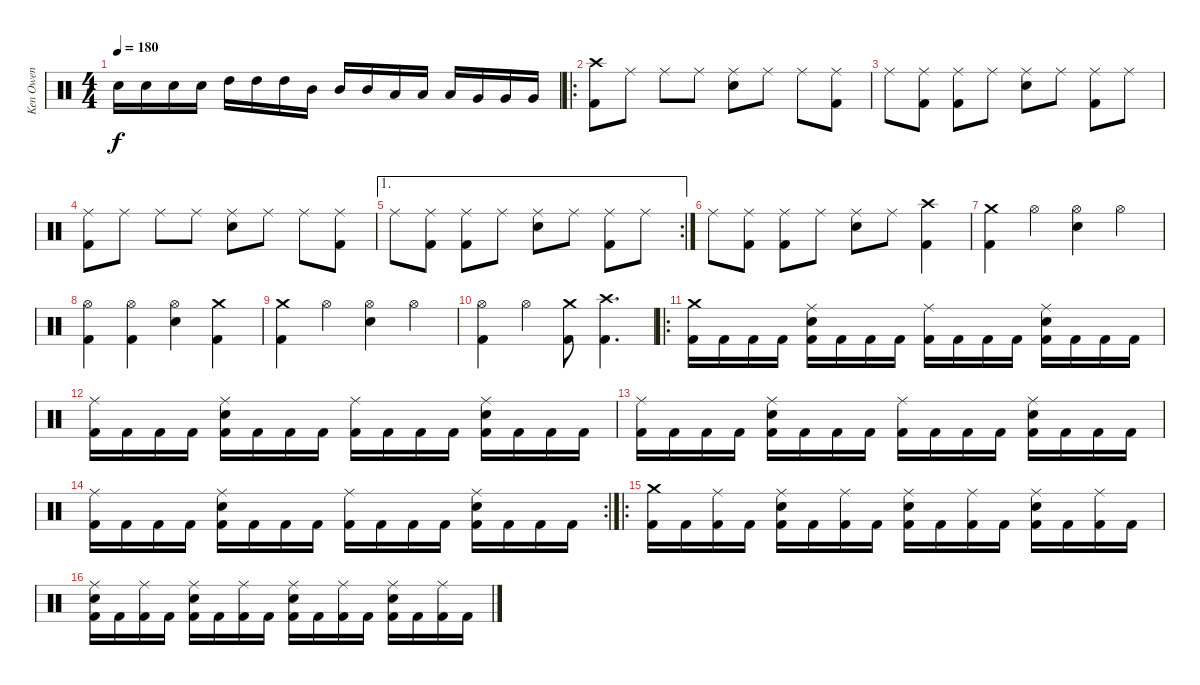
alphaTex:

\track ("Ken Owen" "Ken Owen") {instrument percussion}
\staff {score}
\articulation defaults
\ts (4 4)
\tempo 180
\clef neutral
\ks c "Snare (hit) 2".16{dy f} "Snare (hit) 2".16 "Snare (hit) 2".16 "Snare (hit) 2".16 "High Tom (hit)".16 "High Tom (hit)".16 "High Tom (hit)".16 "Mid Tom (hit)".16 "Mid Tom (hit)".16 "Mid Tom (hit)".16 "Low Tom (hit)".16 "Low Tom (hit)".16 "Low Tom (hit)".16 "Very Low Tom (hit)".16 "Very Low Tom (hit)".16 "Very Low Tom (hit)".16
|
\ro
("Crash high (hit)" "Kick (hit) 2").8 "Ride (middle)".8 "Ride (middle)".8 "Ride (middle)".8 ("Ride (middle)" "Snare (hit) 2").8 "Ride (middle)".8 "Ride (middle)".8 ("Ride (middle)" "Kick (hit) 2").8 |
"Ride (middle)".8 ("Ride (middle)" "Kick (hit) 2").8 ("Ride (middle)" "Kick (hit) 2").8 "Ride (middle)".8 ("Ride (middle)" "Snare (hit) 2").8 "Ride (middle)".8 ("Ride (middle)" "Kick (hit) 2").8 "Ride (middle)".8 |
("Ride (middle)" "Kick (hit) 2").8 "Ride (middle)".8 "Ride (middle)".8 "Ride (middle)".8 ("Ride (middle)" "Snare (hit) 2").8 "Ride (middle)".8 "Ride (middle)".8 ("Ride (middle)" "Kick (hit) 2").8 |
\ae 1
\rc 2 "Ride (middle)".8
("Ride (middle)" "Kick (hit) 2").8 ("Ride (middle)" "Kick (hit) 2").8 "Ride (middle)".8 ("Ride (middle)" "Snare (hit) 2").8 "Ride (middle)".8 ("Ride (middle)" "Kick (hit) 2").8 "Ride (middle)".8 |
"Ride (middle)".8 ("Ride (middle)" "Kick (hit) 2").8 ("Ride (middle)" "Kick (hit) 2").8 "Ride (middle)".8 ("Ride (middle)" "Snare (hit) 2").8 "Ride (middle)".8 ("Crash high (hit)" "Kick (hit) 2").4 |
("Crash medium (hit)" "Kick (hit) 2").4 "Hi-Hat (open)".4 ("Hi-Hat (open)" "Snare (hit) 2").4 "Hi-Hat (open)".4 |
("Hi-Hat (open)" "Kick (hit) 2").4 ("Hi-Hat (open)" "Kick (hit) 2").4 ("Hi-Hat (open)" "Snare (hit) 2").4 ("Crash medium (hit)" "Kick (hit) 2").4 |
("Crash medium (hit)" "Kick (hit) 2").4 "Hi-Hat (open)".4 ("Hi-Hat (open)" "Snare (hit) 2").4 "Hi-Hat (open)".4 |
("Hi-Hat (open)" "Kick (hit) 2").4 "Hi-Hat (open)".4 ("Crash medium (hit)" "Kick (hit) 2").8 ("Crash high (hit)" "Kick (hit) 2").4{d} |
\ro
("Crash medium (hit)" "Kick (hit) 2").16 "Kick (hit) 2".16 "Kick (hit) 2".16 "Kick (hit) 2".16 ("Ride (middle)" "Snare (hit) 2" "Kick (hit) 2").16 "Kick (hit) 2".16 "Kick (hit) 2".16 "Kick (hit) 2".16 ("Ride (middle)" "Kick (hit) 2").16 "Kick (hit) 2".16 "Kick (hit) 2".16 "Kick (hit) 2".16 ("Ride (middle)" "Snare (hit) 2" "Kick (hit) 2").16 "Kick (hit) 2".16 "Kick (hit) 2".16 "Kick (hit) 2".16 |
("Ride (middle)" "Kick (hit) 2").16 "Kick (hit) 2".16 "Kick (hit) 2".16 "Kick (hit) 2".16 ("Ride (middle)" "Snare (hit) 2" "Kick (hit) 2").16 "Kick (hit) 2".16 "Kick (hit) 2".16 "Kick (hit) 2".16 ("Ride (middle)" "Kick (hit) 2").16 "Kick (hit) 2".16 "Kick (hit) 2".16 "Kick (hit) 2".16 ("Ride (middle)" "Snare (hit) 2" "Kick (hit) 2").16 "Kick (hit) 2".16 "Kick (hit) 2".16 "Kick (hit) 2".16 |
("Ride (middle)" "Kick (hit) 2").16 "Kick (hit) 2".16 "Kick (hit) 2".16 "Kick (hit) 2".16 ("Ride (middle)" "Snare (hit) 2" "Kick (hit) 2").16 "Kick (hit) 2".16 "Kick (hit) 2".16 "Kick (hit) 2".16 ("Ride (middle)" "Kick (hit) 2").16 "Kick (hit) 2".16 "Kick (hit) 2".16 "Kick (hit) 2".16 ("Ride (middle)" "Snare (hit) 2" "Kick (hit) 2").16 "Kick (hit) 2".16 "Kick (hit) 2".16 "Kick (hit) 2".16 |
\rc 2
("Ride (middle)" "Kick (hit) 2").16 "Kick (hit) 2".16 "Kick (hit) 2".16 "Kick (hit) 2".16 ("Ride (middle)" "Snare (hit) 2" "Kick (hit) 2").16 "Kick (hit) 2".16 "Kick (hit) 2".16 "Kick (hit) 2".16 ("Ride (middle)" "Kick (hit) 2").16 "Kick (hit) 2".16 "Kick (hit) 2".16 "Kick (hit) 2".16 ("Ride (middle)" "Snare (hit) 2" "Kick (hit) 2").16 "Kick (hit) 2".16 "Kick (hit) 2".16 "Kick (hit) 2".16 |
\ro
("Crash medium (hit)" "Kick (hit) 2").16 "Kick (hit) 2".16 ("Ride (middle)" "Kick (hit) 2").16 "Kick (hit) 2".16 ("Ride (middle)" "Snare (hit) 2" "Kick (hit) 2").16 "Kick (hit) 2".16 ("Ride (middle)" "Kick (hit) 2").16 "Kick (hit) 2".16 ("Ride (middle)" "Snare (hit) 2" "Kick (hit) 2").16 "Kick (hit) 2".16 ("Ride (middle)" "Kick (hit) 2").16 "Kick (hit) 2".16 ("Ride (middle)" "Snare (hit) 2" "Kick (hit) 2").16 "Kick (hit) 2".16 ("Ride (middle)" "Kick (hit) 2").16 "Kick (hit) 2".16 |
("Ride (middle)" "Snare (hit) 2" "Kick (hit) 2").16 "Kick (hit) 2".16 ("Ride (middle)" "Kick (hit) 2").16 "Kick (hit) 2".16 ("Ride (middle)" "Snare (hit) 2" "Kick (hit) 2").16 "Kick (hit) 2".16 ("Ride (middle)" "Kick (hit) 2").16 "Kick (hit) 2".16 ("Ride (middle)" "Snare (hit) 2" "Kick (hit) 2").16 "Kick (hit) 2".16 ("Ride (middle)" "Kick (hit) 2").16 "Kick (hit) 2".16 ("Ride (middle)" "Snare (hit) 2" "Kick (hit) 2").16 "Kick (hit) 2".16 ("Ride (middle)" "Kick (hit) 2").16 "Kick (hit) 2".16
